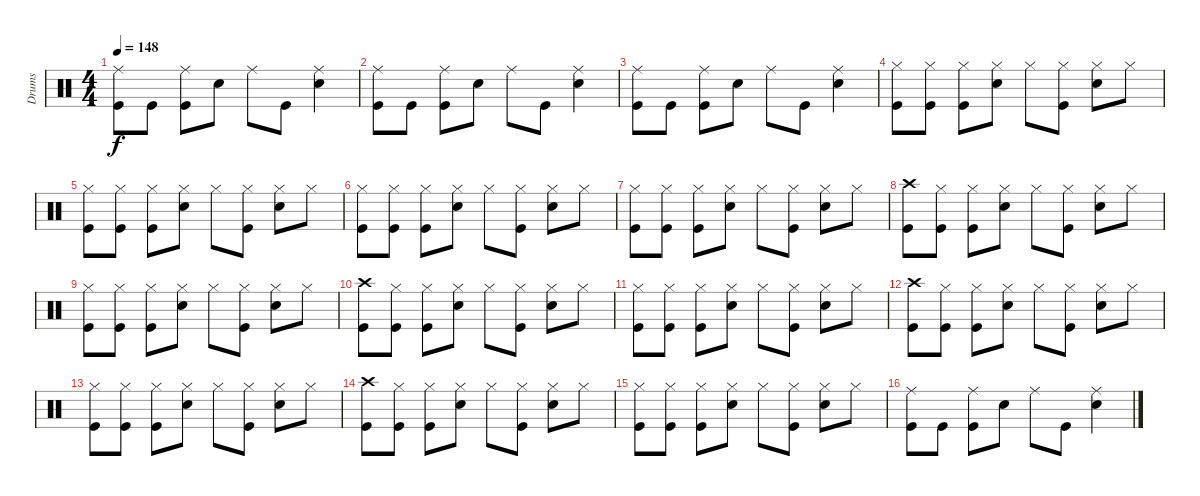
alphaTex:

\track ("Drums" "Drums") {instrument percussion}
\staff {score}
\articulation defaults
\ts (4 4)
\tempo 148
\clef neutral
\ks c
("Ride (middle)" "Kick (hit)").8{dy f} "Kick (hit)".8 ("Ride (middle)" "Kick (hit)").8 "Snare (hit) 2".8 "Ride (middle)".8 "Kick (hit)".8 ("Ride (middle)" "Snare (hit) 2").4 |
("Ride (middle)" "Kick (hit)").8 "Kick (hit)".8 ("Ride (middle)" "Kick (hit)").8 "Snare (hit) 2".8 "Ride (middle)".8 "Kick (hit)".8 ("Ride (middle)" "Snare (hit) 2").4 |
("Ride (middle)" "Kick (hit)").8 "Kick (hit)".8 ("Ride (middle)" "Kick (hit)").8 "Snare (hit) 2".8 "Ride (middle)".8 "Kick (hit)".8 ("Ride (middle)" "Snare (hit) 2").4 |
("Hi-Hat (closed)" "Kick (hit)").8 ("Hi-Hat (closed)" "Kick (hit)").8 ("Hi-Hat (closed)" "Kick (hit)").8 ("Hi-Hat (closed)" "Snare (hit) 2").8 "Hi-Hat (closed)".8 ("Kick (hit)" "Hi-Hat (closed)").8 ("Hi-Hat (closed)" "Snare (hit) 2").8 "Hi-Hat (closed)".8 |
("Hi-Hat (closed)" "Kick (hit)").8 ("Hi-Hat (closed)" "Kick (hit)").8 ("Hi-Hat (closed)" "Kick (hit)").8 ("Hi-Hat (closed)" "Snare (hit) 2").8 "Hi-Hat (closed)".8 ("Kick (hit)" "Hi-Hat (closed)").8 ("Hi-Hat (closed)" "Snare (hit) 2").8 "Hi-Hat (closed)".8 |
("Hi-Hat (closed)" "Kick (hit)").8 ("Hi-Hat (closed)" "Kick (hit)").8 ("Hi-Hat (closed)" "Kick (hit)").8 ("Hi-Hat (closed)" "Snare (hit) 2").8 "Hi-Hat (closed)".8 ("Kick (hit)" "Hi-Hat (closed)").8 ("Hi-Hat (closed)" "Snare (hit) 2").8 "Hi-Hat (closed)".8 |
("Hi-Hat (closed)" "Kick (hit)").8 ("Hi-Hat (closed)" "Kick (hit)").8 ("Hi-Hat (closed)" "Kick (hit)").8 ("Hi-Hat (closed)" "Snare (hit) 2").8 "Hi-Hat (closed)".8 ("Kick (hit)" "Hi-Hat (closed)").8 ("Hi-Hat (closed)" "Snare (hit) 2").8 "Hi-Hat (closed)".8 |
("Crash high (hit)" "Kick (hit)").8 ("Hi-Hat (closed)" "Kick (hit)").8 ("Hi-Hat (closed)" "Kick (hit)").8 ("Hi-Hat (closed)" "Snare (hit) 2").8 "Hi-Hat (closed)".8 ("Kick (hit)" "Hi-Hat (closed)").8 ("Hi-Hat (closed)" "Snare (hit) 2").8 "Hi-Hat (closed)".8 |
("Hi-Hat (closed)" "Kick (hit)").8 ("Hi-Hat (closed)" "Kick (hit)").8 ("Hi-Hat (closed)" "Kick (hit)").8 ("Hi-Hat (closed)" "Snare (hit) 2").8 "Hi-Hat (closed)".8 ("Kick (hit)" "Hi-Hat (closed)").8 ("Hi-Hat (closed)" "Snare (hit) 2").8 "Hi-Hat (closed)".8 |
("Crash high (hit)" "Kick (hit)").8 ("Hi-Hat (closed)" "Kick (hit)").8 ("Hi-Hat (closed)" "Kick (hit)").8 ("Hi-Hat (closed)" "Snare (hit) 2").8 "Hi-Hat (closed)".8 ("Kick (hit)" "Hi-Hat (closed)").8 ("Hi-Hat (closed)" "Snare (hit) 2").8 "Hi-Hat (closed)".8 |
("Hi-Hat (closed)" "Kick (hit)").8 ("Hi-Hat (closed)" "Kick (hit)").8 ("Hi-Hat (closed)" "Kick (hit)").8 ("Hi-Hat (closed)" "Snare (hit) 2").8 "Hi-Hat (closed)".8 ("Kick (hit)" "Hi-Hat (closed)").8 ("Hi-Hat (closed)" "Snare (hit) 2").8 "Hi-Hat (closed)".8 |
("Crash high (hit)" "Kick (hit)").8 ("Hi-Hat (closed)" "Kick (hit)").8 ("Hi-Hat (closed)" "Kick (hit)").8 ("Hi-Hat (closed)" "Snare (hit) 2").8 "Hi-Hat (closed)".8 ("Kick (hit)" "Hi-Hat (closed)").8 ("Hi-Hat (closed)" "Snare (hit) 2").8 "Hi-Hat (closed)".8 |
("Hi-Hat (closed)" "Kick (hit)").8 ("Hi-Hat (closed)" "Kick (hit)").8 ("Hi-Hat (closed)" "Kick (hit)").8 ("Hi-Hat (closed)" "Snare (hit) 2").8 "Hi-Hat (closed)".8 ("Kick (hit)" "Hi-Hat (closed)").8 ("Hi-Hat (closed)" "Snare (hit) 2").8 "Hi-Hat (closed)".8 |
("Crash high (hit)" "Kick (hit)").8 ("Hi-Hat (closed)" "Kick (hit)").8 ("Hi-Hat (closed)" "Kick (hit)").8 ("Hi-Hat (closed)" "Snare (hit) 2").8 "Hi-Hat (closed)".8 ("Kick (hit)" "Hi-Hat (closed)").8 ("Hi-Hat (closed)" "Snare (hit) 2").8 "Hi-Hat (closed)".8 |
("Hi-Hat (closed)" "Kick (hit)").8 ("Hi-Hat (closed)" "Kick (hit)").8 ("Hi-Hat (closed)" "Kick (hit)").8 ("Hi-Hat (closed)" "Snare (hit) 2").8 "Hi-Hat (closed)".8 ("Kick (hit)" "Hi-Hat (closed)").8 ("Hi-Hat (closed)" "Snare (hit) 2").8 "Hi-Hat (closed)".8 |
("Ride (middle)" "Kick (hit)").8 "Kick (hit)".8 ("Ride (middle)" "Kick (hit)").8 "Snare (hit) 2".8 "Ride (middle)".8 "Kick (hit)".8 ("Ride (middle)" "Snare (hit) 2").4
